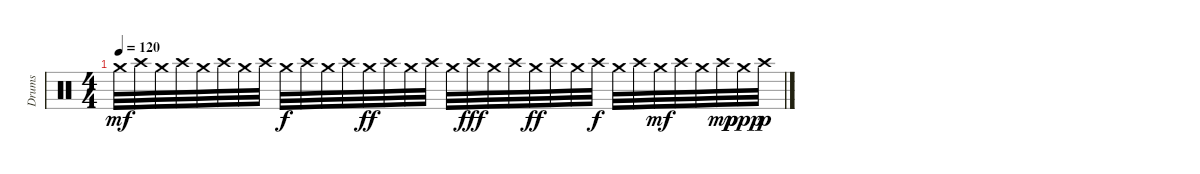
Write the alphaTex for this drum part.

\track ("Drums" "Drums") {instrument percussion}
\staff {score}
\articulation defaults
\ts (4 4)
\tempo 120
\clef neutral
\ks c "Crash medium (hit)".32{dy mf} "Crash high (hit)".32 "Crash medium (hit)".32 "Crash high (hit)".32 "Crash medium (hit)".32 "Crash high (hit)".32 "Crash medium (hit)".32 "Crash high (hit)".32 "Crash medium (hit)".32{dy f} "Crash high (hit)".32 "Crash medium (hit)".32 "Crash high (hit)".32 "Crash medium (hit)".32{dy ff} "Crash high (hit)".32 "Crash medium (hit)".32 "Crash high (hit)".32 "Crash medium (hit)".32 "Crash high (hit)".32{dy fff} "Crash medium (hit)".32 "Crash high (hit)".32 "Crash medium (hit)".32{dy ff} "Crash high (hit)".32 "Crash medium (hit)".32 "Crash high (hit)".32{dy f} "Crash medium (hit)".32 "Crash high (hit)".32 "Crash medium (hit)".32{dy mf} "Crash high (hit)".32 "Crash medium (hit)".32 "Crash high (hit)".32{dy mp} "Crash medium (hit)".32{dy ppp} "Crash high (hit)".32{dy p}
